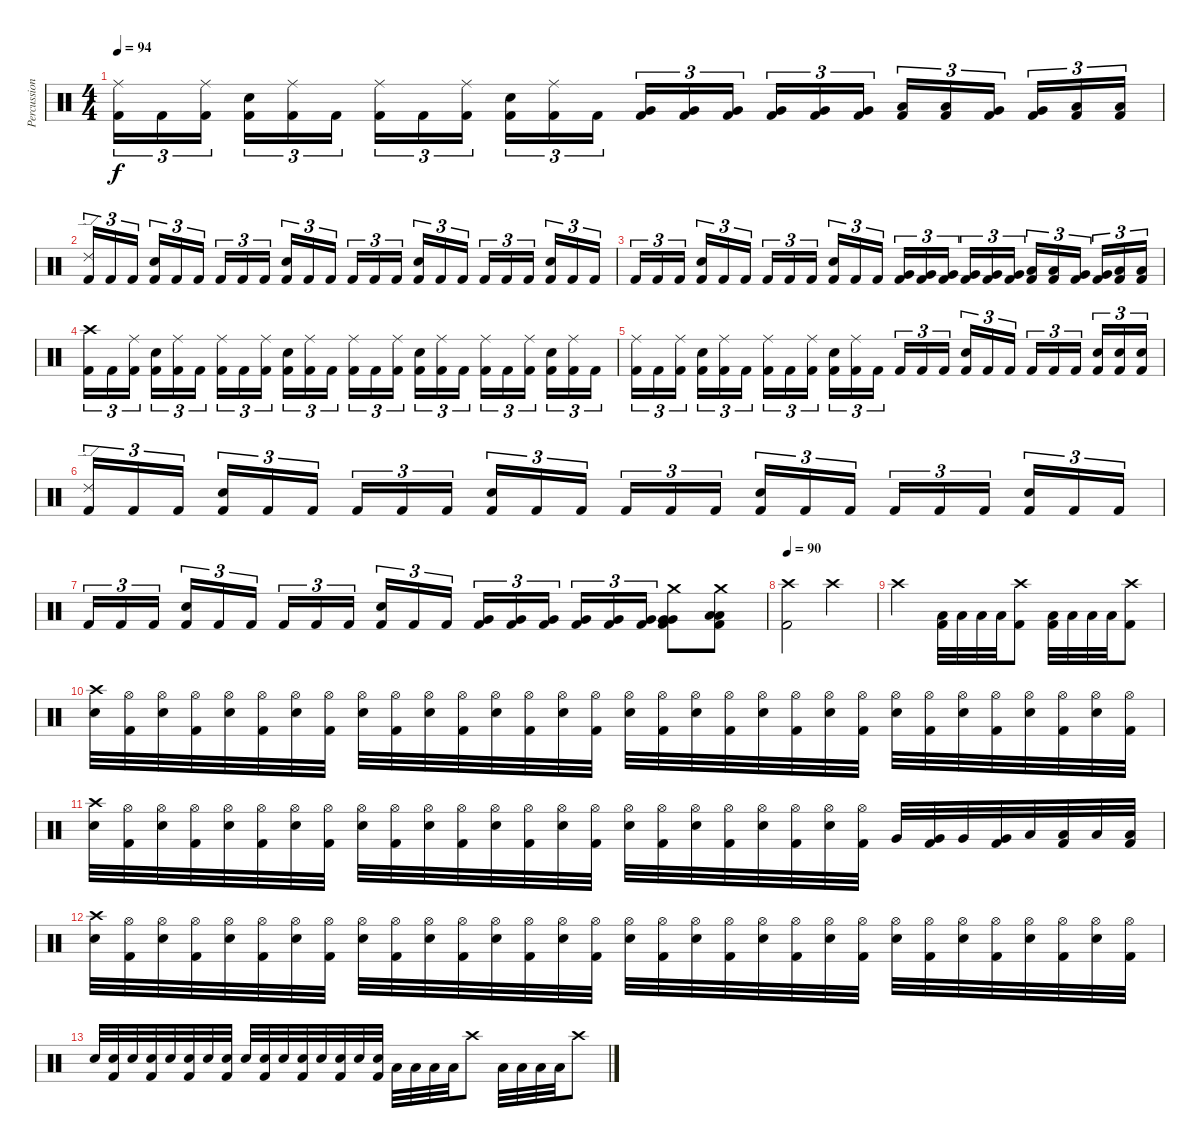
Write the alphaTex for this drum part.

\track ("Percussioni" "Percussion") {instrument percussion}
\staff {score}
\articulation defaults
\ts (4 4)
\tempo 94
\clef neutral
\ks c
("Ride (middle)" "Kick (hit) 2").16{tu (3 2) dy f} "Kick (hit) 2".16{tu (3 2)} ("Ride (middle)" "Kick (hit) 2").16{tu (3 2)} ("Snare (hit) 2" "Kick (hit) 2").16{tu (3 2)} ("Ride (middle)" "Kick (hit) 2").16{tu (3 2)} "Kick (hit) 2".16{tu (3 2)} ("Ride (middle)" "Kick (hit) 2").16{tu (3 2)} "Kick (hit) 2".16{tu (3 2)} ("Ride (middle)" "Kick (hit) 2").16{tu (3 2)} ("Snare (hit) 2" "Kick (hit) 2").16{tu (3 2)} ("Ride (middle)" "Kick (hit) 2").16{tu (3 2)} "Kick (hit) 2".16{tu (3 2)} ("Very Low Tom (hit)" "Kick (hit) 2").16{tu (3 2)} ("Very Low Tom (hit)" "Kick (hit) 2").16{tu (3 2)} ("Very Low Tom (hit)" "Kick (hit) 2").16{tu (3 2)} ("Very Low Tom (hit)" "Kick (hit) 2").16{tu (3 2)} ("Very Low Tom (hit)" "Kick (hit) 2").16{tu (3 2)} ("Very Low Tom (hit)" "Kick (hit) 2").16{tu (3 2)} ("Low Tom (hit)" "Kick (hit) 2").16{tu (3 2)} ("Low Tom (hit)" "Kick (hit) 2").16{tu (3 2)} ("Very Low Tom (hit)" "Kick (hit) 2").16{tu (3 2)} ("Very Low Tom (hit)" "Kick (hit) 2").16{tu (3 2)} ("Low Floor Tom (hit)" "Kick (hit) 2").16{tu (3 2)} ("Low Floor Tom (hit)" "Kick (hit) 2").16{tu (3 2)} |
("Ride (edge) 2" "Kick (hit) 2").16{tu (3 2)} "Kick (hit) 2".16{tu (3 2)} "Kick (hit) 2".16{tu (3 2)} ("Snare (hit) 2" "Kick (hit) 2").16{tu (3 2)} "Kick (hit) 2".16{tu (3 2)} "Kick (hit) 2".16{tu (3 2)} "Kick (hit) 2".16{tu (3 2)} "Kick (hit) 2".16{tu (3 2)} "Kick (hit) 2".16{tu (3 2)} ("Snare (hit) 2" "Kick (hit) 2").16{tu (3 2)} "Kick (hit) 2".16{tu (3 2)} "Kick (hit) 2".16{tu (3 2)} "Kick (hit) 2".16{tu (3 2)} "Kick (hit) 2".16{tu (3 2)} "Kick (hit) 2".16{tu (3 2)} ("Snare (hit) 2" "Kick (hit) 2").16{tu (3 2)} "Kick (hit) 2".16{tu (3 2)} "Kick (hit) 2".16{tu (3 2)} "Kick (hit) 2".16{tu (3 2)} "Kick (hit) 2".16{tu (3 2)} "Kick (hit) 2".16{tu (3 2)} ("Snare (hit) 2" "Kick (hit) 2").16{tu (3 2)} "Kick (hit) 2".16{tu (3 2)} "Kick (hit) 2".16{tu (3 2)} |
"Kick (hit) 2".16{tu (3 2)} "Kick (hit) 2".16{tu (3 2)} "Kick (hit) 2".16{tu (3 2)} ("Snare (hit) 2" "Kick (hit) 2").16{tu (3 2)} "Kick (hit) 2".16{tu (3 2)} "Kick (hit) 2".16{tu (3 2)} "Kick (hit) 2".16{tu (3 2)} "Kick (hit) 2".16{tu (3 2)} "Kick (hit) 2".16{tu (3 2)} ("Snare (hit) 2" "Kick (hit) 2").16{tu (3 2)} "Kick (hit) 2".16{tu (3 2)} "Kick (hit) 2".16{tu (3 2)} ("Very Low Tom (hit)" "Kick (hit) 2").16{tu (3 2)} ("Very Low Tom (hit)" "Kick (hit) 2").16{tu (3 2)} ("Very Low Tom (hit)" "Kick (hit) 2").16{tu (3 2)} ("Very Low Tom (hit)" "Kick (hit) 2").16{tu (3 2)} ("Very Low Tom (hit)" "Kick (hit) 2").16{tu (3 2)} ("Very Low Tom (hit)" "Kick (hit) 2").16{tu (3 2)} ("Low Tom (hit)" "Kick (hit) 2").16{tu (3 2)} ("Low Tom (hit)" "Kick (hit) 2").16{tu (3 2)} ("Very Low Tom (hit)" "Kick (hit) 2").16{tu (3 2)} ("Very Low Tom (hit)" "Kick (hit) 2").16{tu (3 2)} ("Low Floor Tom (hit)" "Kick (hit) 2").16{tu (3 2)} ("Low Floor Tom (hit)" "Kick (hit) 2").16{tu (3 2)} |
("Crash high (hit)" "Kick (hit) 2").16{tu (3 2)} "Kick (hit) 2".16{tu (3 2)} ("Ride (middle)" "Kick (hit) 2").16{tu (3 2)} ("Snare (hit) 2" "Kick (hit) 2").16{tu (3 2)} ("Ride (middle)" "Kick (hit) 2").16{tu (3 2)} "Kick (hit) 2".16{tu (3 2)} ("Ride (middle)" "Kick (hit) 2").16{tu (3 2)} "Kick (hit) 2".16{tu (3 2)} ("Ride (middle)" "Kick (hit) 2").16{tu (3 2)} ("Snare (hit) 2" "Kick (hit) 2").16{tu (3 2)} ("Ride (middle)" "Kick (hit) 2").16{tu (3 2)} "Kick (hit) 2".16{tu (3 2)} ("Ride (middle)" "Kick (hit) 2").16{tu (3 2)} "Kick (hit) 2".16{tu (3 2)} ("Ride (middle)" "Kick (hit) 2").16{tu (3 2)} ("Snare (hit) 2" "Kick (hit) 2").16{tu (3 2)} ("Ride (middle)" "Kick (hit) 2").16{tu (3 2)} "Kick (hit) 2".16{tu (3 2)} ("Ride (middle)" "Kick (hit) 2").16{tu (3 2)} "Kick (hit) 2".16{tu (3 2)} ("Ride (middle)" "Kick (hit) 2").16{tu (3 2)} ("Snare (hit) 2" "Kick (hit) 2").16{tu (3 2)} ("Ride (middle)" "Kick (hit) 2").16{tu (3 2)} "Kick (hit) 2".16{tu (3 2)} |
("Ride (middle)" "Kick (hit) 2").16{tu (3 2)} "Kick (hit) 2".16{tu (3 2)} ("Ride (middle)" "Kick (hit) 2").16{tu (3 2)} ("Snare (hit) 2" "Kick (hit) 2").16{tu (3 2)} ("Ride (middle)" "Kick (hit) 2").16{tu (3 2)} "Kick (hit) 2".16{tu (3 2)} ("Ride (middle)" "Kick (hit) 2").16{tu (3 2)} "Kick (hit) 2".16{tu (3 2)} ("Ride (middle)" "Kick (hit) 2").16{tu (3 2)} ("Snare (hit) 2" "Kick (hit) 2").16{tu (3 2)} ("Ride (middle)" "Kick (hit) 2").16{tu (3 2)} "Kick (hit) 2".16{tu (3 2)} "Kick (hit) 2".16{tu (3 2)} "Kick (hit) 2".16{tu (3 2)} "Kick (hit) 2".16{tu (3 2)} ("Snare (hit) 2" "Kick (hit) 2").16{tu (3 2)} "Kick (hit) 2".16{tu (3 2)} "Kick (hit) 2".16{tu (3 2)} "Kick (hit) 2".16{tu (3 2)} "Kick (hit) 2".16{tu (3 2)} "Kick (hit) 2".16{tu (3 2)} ("Snare (hit) 2" "Kick (hit) 2").16{tu (3 2)} ("Snare (hit) 2" "Kick (hit) 2").16{tu (3 2)} ("Snare (hit) 2" "Kick (hit) 2").16{tu (3 2)} |
("Ride (edge) 2" "Kick (hit) 2").16{tu (3 2)} "Kick (hit) 2".16{tu (3 2)} "Kick (hit) 2".16{tu (3 2)} ("Snare (hit) 2" "Kick (hit) 2").16{tu (3 2)} "Kick (hit) 2".16{tu (3 2)} "Kick (hit) 2".16{tu (3 2)} "Kick (hit) 2".16{tu (3 2)} "Kick (hit) 2".16{tu (3 2)} "Kick (hit) 2".16{tu (3 2)} ("Snare (hit) 2" "Kick (hit) 2").16{tu (3 2)} "Kick (hit) 2".16{tu (3 2)} "Kick (hit) 2".16{tu (3 2)} "Kick (hit) 2".16{tu (3 2)} "Kick (hit) 2".16{tu (3 2)} "Kick (hit) 2".16{tu (3 2)} ("Snare (hit) 2" "Kick (hit) 2").16{tu (3 2)} "Kick (hit) 2".16{tu (3 2)} "Kick (hit) 2".16{tu (3 2)} "Kick (hit) 2".16{tu (3 2)} "Kick (hit) 2".16{tu (3 2)} "Kick (hit) 2".16{tu (3 2)} ("Snare (hit) 2" "Kick (hit) 2").16{tu (3 2)} "Kick (hit) 2".16{tu (3 2)} "Kick (hit) 2".16{tu (3 2)} |
"Kick (hit) 2".16{tu (3 2)} "Kick (hit) 2".16{tu (3 2)} "Kick (hit) 2".16{tu (3 2)} ("Snare (hit) 2" "Kick (hit) 2").16{tu (3 2)} "Kick (hit) 2".16{tu (3 2)} "Kick (hit) 2".16{tu (3 2)} "Kick (hit) 2".16{tu (3 2)} "Kick (hit) 2".16{tu (3 2)} "Kick (hit) 2".16{tu (3 2)} ("Snare (hit) 2" "Kick (hit) 2").16{tu (3 2)} "Kick (hit) 2".16{tu (3 2)} "Kick (hit) 2".16{tu (3 2)} ("Very Low Tom (hit)" "Kick (hit) 2").16{tu (3 2)} ("Very Low Tom (hit)" "Kick (hit) 2").16{tu (3 2)} ("Very Low Tom (hit)" "Kick (hit) 2").16{tu (3 2)} ("Very Low Tom (hit)" "Kick (hit) 2").16{tu (3 2)} ("Very Low Tom (hit)" "Kick (hit) 2").16{tu (3 2)} ("Very Low Tom (hit)" "Kick (hit) 2").16{tu (3 2)} ("Crash medium (hit)" "Very Low Tom (hit)" "Very Low Tom (hit)" "Kick (hit) 2").8 ("Crash medium (hit)" "Low Floor Tom (hit)" "Low Floor Tom (hit)" "Kick (hit) 2").8 |
\tempo 90
("Crash high (hit)" "Kick (hit) 2").2 "Crash high (hit)".2 |
"Crash high (hit)".2 ("Low Floor Tom (hit)" "Kick (hit) 2").32 "Low Floor Tom (hit)".32 "Low Floor Tom (hit)".32 "Low Floor Tom (hit)".32 ("Crash high (hit)" "Kick (hit) 2").8 ("Low Floor Tom (hit)" "Kick (hit) 2").32 "Low Floor Tom (hit)".32 "Low Floor Tom (hit)".32 "Low Floor Tom (hit)".32 ("Crash high (hit)" "Kick (hit) 2").8 |
("Crash high (hit)" "Snare (hit) 2").32 ("Hi-Hat (open)" "Kick (hit) 2").32 ("Hi-Hat (open)" "Snare (hit) 2").32 ("Hi-Hat (open)" "Kick (hit) 2").32 ("Hi-Hat (open)" "Snare (hit) 2").32 ("Hi-Hat (open)" "Kick (hit) 2").32 ("Hi-Hat (open)" "Snare (hit) 2").32 ("Hi-Hat (open)" "Kick (hit) 2").32 ("Hi-Hat (open)" "Snare (hit) 2").32 ("Hi-Hat (open)" "Kick (hit) 2").32 ("Hi-Hat (open)" "Snare (hit) 2").32 ("Hi-Hat (open)" "Kick (hit) 2").32 ("Hi-Hat (open)" "Snare (hit) 2").32 ("Hi-Hat (open)" "Kick (hit) 2").32 ("Hi-Hat (open)" "Snare (hit) 2").32 ("Hi-Hat (open)" "Kick (hit) 2").32 ("Hi-Hat (open)" "Snare (hit) 2").32 ("Hi-Hat (open)" "Kick (hit) 2").32 ("Hi-Hat (open)" "Snare (hit) 2").32 ("Hi-Hat (open)" "Kick (hit) 2").32 ("Hi-Hat (open)" "Snare (hit) 2").32 ("Hi-Hat (open)" "Kick (hit) 2").32 ("Hi-Hat (open)" "Snare (hit) 2").32 ("Hi-Hat (open)" "Kick (hit) 2").32 ("Hi-Hat (open)" "Snare (hit) 2").32 ("Hi-Hat (open)" "Kick (hit) 2").32 ("Hi-Hat (open)" "Snare (hit) 2").32 ("Hi-Hat (open)" "Kick (hit) 2").32 ("Hi-Hat (open)" "Snare (hit) 2").32 ("Hi-Hat (open)" "Kick (hit) 2").32 ("Hi-Hat (open)" "Snare (hit) 2").32 ("Hi-Hat (open)" "Kick (hit) 2").32 |
("Crash high (hit)" "Snare (hit) 2").32 ("Hi-Hat (open)" "Kick (hit) 2").32 ("Hi-Hat (open)" "Snare (hit) 2").32 ("Hi-Hat (open)" "Kick (hit) 2").32 ("Hi-Hat (open)" "Snare (hit) 2").32 ("Hi-Hat (open)" "Kick (hit) 2").32 ("Hi-Hat (open)" "Snare (hit) 2").32 ("Hi-Hat (open)" "Kick (hit) 2").32 ("Hi-Hat (open)" "Snare (hit) 2").32 ("Hi-Hat (open)" "Kick (hit) 2").32 ("Hi-Hat (open)" "Snare (hit) 2").32 ("Hi-Hat (open)" "Kick (hit) 2").32 ("Hi-Hat (open)" "Snare (hit) 2").32 ("Hi-Hat (open)" "Kick (hit) 2").32 ("Hi-Hat (open)" "Snare (hit) 2").32 ("Hi-Hat (open)" "Kick (hit) 2").32 ("Hi-Hat (open)" "Snare (hit) 2").32 ("Hi-Hat (open)" "Kick (hit) 2").32 ("Hi-Hat (open)" "Snare (hit) 2").32 ("Hi-Hat (open)" "Kick (hit) 2").32 ("Hi-Hat (open)" "Snare (hit) 2").32 ("Hi-Hat (open)" "Kick (hit) 2").32 ("Hi-Hat (open)" "Snare (hit) 2").32 ("Hi-Hat (open)" "Kick (hit) 2").32 "Very Low Tom (hit)".32 ("Very Low Tom (hit)" "Kick (hit) 2").32 "Very Low Tom (hit)".32 ("Very Low Tom (hit)" "Kick (hit) 2").32 "Low Floor Tom (hit)".32 ("Low Floor Tom (hit)" "Kick (hit) 2").32 "Low Floor Tom (hit)".32 ("Low Floor Tom (hit)" "Kick (hit) 2").32 |
("Crash high (hit)" "Snare (hit) 2").32 ("Hi-Hat (open)" "Kick (hit) 2").32 ("Hi-Hat (open)" "Snare (hit) 2").32 ("Hi-Hat (open)" "Kick (hit) 2").32 ("Hi-Hat (open)" "Snare (hit) 2").32 ("Hi-Hat (open)" "Kick (hit) 2").32 ("Hi-Hat (open)" "Snare (hit) 2").32 ("Hi-Hat (open)" "Kick (hit) 2").32 ("Hi-Hat (open)" "Snare (hit) 2").32 ("Hi-Hat (open)" "Kick (hit) 2").32 ("Hi-Hat (open)" "Snare (hit) 2").32 ("Hi-Hat (open)" "Kick (hit) 2").32 ("Hi-Hat (open)" "Snare (hit) 2").32 ("Hi-Hat (open)" "Kick (hit) 2").32 ("Hi-Hat (open)" "Snare (hit) 2").32 ("Hi-Hat (open)" "Kick (hit) 2").32 ("Hi-Hat (open)" "Snare (hit) 2").32 ("Hi-Hat (open)" "Kick (hit) 2").32 ("Hi-Hat (open)" "Snare (hit) 2").32 ("Hi-Hat (open)" "Kick (hit) 2").32 ("Hi-Hat (open)" "Snare (hit) 2").32 ("Hi-Hat (open)" "Kick (hit) 2").32 ("Hi-Hat (open)" "Snare (hit) 2").32 ("Hi-Hat (open)" "Kick (hit) 2").32 ("Hi-Hat (open)" "Snare (hit) 2").32 ("Hi-Hat (open)" "Kick (hit) 2").32 ("Hi-Hat (open)" "Snare (hit) 2").32 ("Hi-Hat (open)" "Kick (hit) 2").32 ("Hi-Hat (open)" "Snare (hit) 2").32 ("Hi-Hat (open)" "Kick (hit) 2").32 ("Hi-Hat (open)" "Snare (hit) 2").32 ("Hi-Hat (open)" "Kick (hit) 2").32 |
"Snare (hit) 2".32 ("Snare (hit) 2" "Kick (hit) 2").32 "Snare (hit) 2".32 ("Snare (hit) 2" "Kick (hit) 2").32 "Snare (hit) 2".32 ("Snare (hit) 2" "Kick (hit) 2").32 "Snare (hit) 2".32 ("Snare (hit) 2" "Kick (hit) 2").32 "Snare (hit) 2".32 ("Snare (hit) 2" "Kick (hit) 2").32 "Snare (hit) 2".32 ("Snare (hit) 2" "Kick (hit) 2").32 "Snare (hit) 2".32 ("Snare (hit) 2" "Kick (hit) 2").32 "Snare (hit) 2".32 ("Snare (hit) 2" "Kick (hit) 2").32 "Low Floor Tom (hit)".32 "Low Floor Tom (hit)".32 "Low Floor Tom (hit)".32 "Low Floor Tom (hit)".32 "Crash high (hit)".8 "Low Floor Tom (hit)".32 "Low Floor Tom (hit)".32 "Low Floor Tom (hit)".32 "Low Floor Tom (hit)".32 "Crash high (hit)".8
